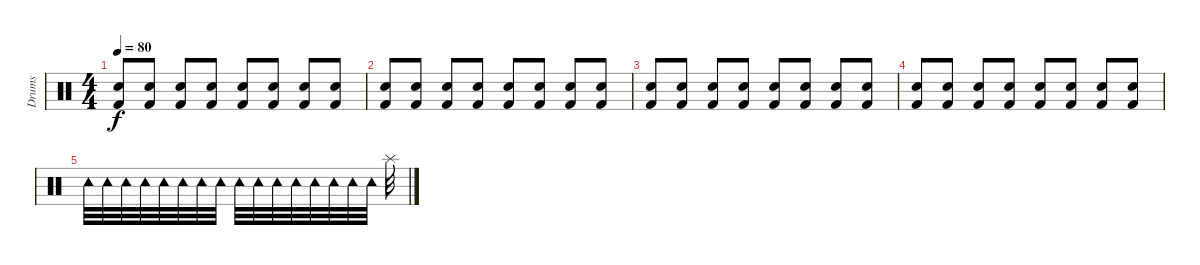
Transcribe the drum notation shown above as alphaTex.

\track ("Drums" "Drums") {instrument percussion}
\staff {score}
\articulation defaults
\ts (4 4)
\tempo 80
\clef neutral
\ks c
("Kick (hit) 2" "Snare (hit) 2").8{dy f} ("Kick (hit) 2" "Snare (hit) 2").8 ("Kick (hit) 2" "Snare (hit) 2").8 ("Kick (hit) 2" "Snare (hit) 2").8 ("Kick (hit) 2" "Snare (hit) 2").8 ("Kick (hit) 2" "Snare (hit) 2").8 ("Kick (hit) 2" "Snare (hit) 2").8 ("Kick (hit) 2" "Snare (hit) 2").8 |
("Kick (hit) 2" "Snare (hit) 2").8 ("Kick (hit) 2" "Snare (hit) 2").8 ("Kick (hit) 2" "Snare (hit) 2").8 ("Kick (hit) 2" "Snare (hit) 2").8 ("Kick (hit) 2" "Snare (hit) 2").8 ("Kick (hit) 2" "Snare (hit) 2").8 ("Kick (hit) 2" "Snare (hit) 2").8 ("Kick (hit) 2" "Snare (hit) 2").8 |
("Kick (hit) 2" "Snare (hit) 2").8 ("Kick (hit) 2" "Snare (hit) 2").8 ("Kick (hit) 2" "Snare (hit) 2").8 ("Kick (hit) 2" "Snare (hit) 2").8 ("Kick (hit) 2" "Snare (hit) 2").8 ("Kick (hit) 2" "Snare (hit) 2").8 ("Kick (hit) 2" "Snare (hit) 2").8 ("Kick (hit) 2" "Snare (hit) 2").8 |
("Kick (hit) 2" "Snare (hit) 2").8 ("Kick (hit) 2" "Snare (hit) 2").8 ("Kick (hit) 2" "Snare (hit) 2").8 ("Kick (hit) 2" "Snare (hit) 2").8 ("Kick (hit) 2" "Snare (hit) 2").8 ("Kick (hit) 2" "Snare (hit) 2").8 ("Kick (hit) 2" "Snare (hit) 2").8 ("Kick (hit) 2" "Snare (hit) 2").8 |
"Tambourine (hit)".32 "Tambourine (hit)".32 "Tambourine (hit)".32 "Tambourine (hit)".32 "Tambourine (hit)".32 "Tambourine (hit)".32 "Tambourine (hit)".32 "Tambourine (hit)".32 "Tambourine (hit)".32 "Tambourine (hit)".32 "Tambourine (hit)".32 "Tambourine (hit)".32 "Tambourine (hit)".32 "Tambourine (hit)".32 "Tambourine (hit)".32 "Tambourine (hit)".32 "Splash (hit)".32
